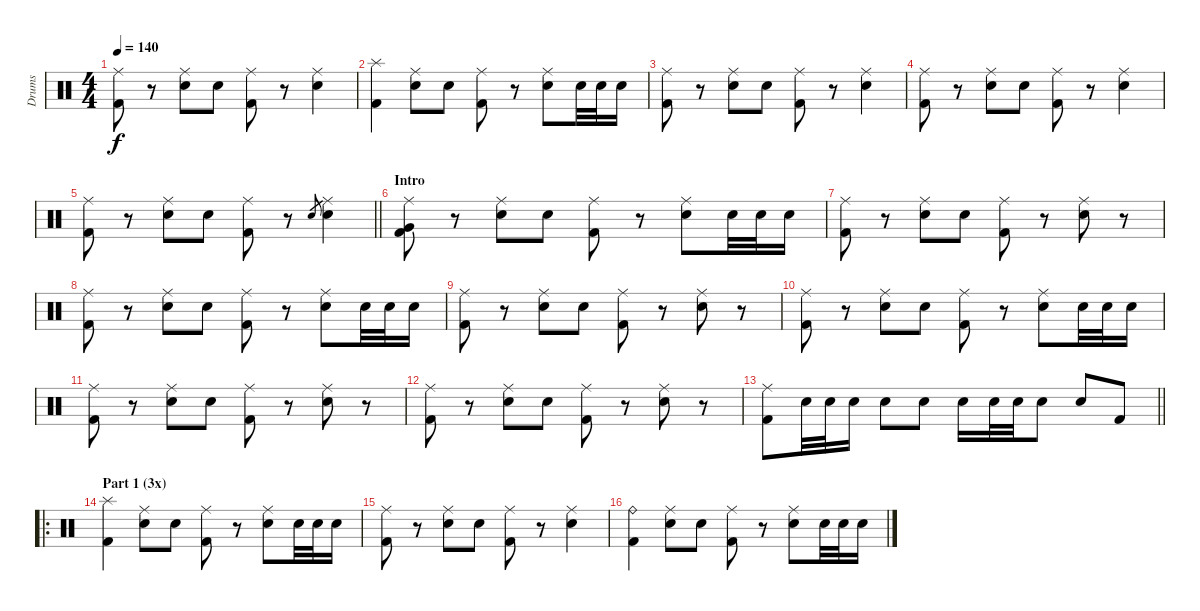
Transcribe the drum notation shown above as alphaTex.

\track ("Drums" "Drums") {instrument percussion}
\staff {score}
\articulation defaults
\ts (4 4)
\tempo 140
\clef neutral
\ks c
("Ride (middle)" "Kick (hit) 2").8{dy f} r.8 ("Ride (middle)" "Snare (hit) 2").8 "Snare (hit) 2".8 ("Ride (middle)" "Kick (hit) 2").8 r.8 ("Ride (middle)" "Snare (hit) 2").4 |
("Splash (hit)" "Kick (hit) 2").4 ("Ride (middle)" "Snare (hit) 2").8 "Snare (hit) 2".8 ("Ride (middle)" "Kick (hit) 2").8 r.8 ("Ride (middle)" "Snare (hit) 2").8 "Snare (hit) 2".32 "Snare (hit) 2".32 "Snare (hit) 2".16 |
("Ride (middle)" "Kick (hit) 2").8 r.8 ("Ride (middle)" "Snare (hit) 2").8 "Snare (hit) 2".8 ("Ride (middle)" "Kick (hit) 2").8 r.8 ("Ride (middle)" "Snare (hit) 2").4 |
("Ride (middle)" "Kick (hit) 2").8 r.8 ("Ride (middle)" "Snare (hit) 2").8 "Snare (hit) 2".8 ("Ride (middle)" "Kick (hit) 2").8 r.8 ("Ride (middle)" "Snare (hit) 2").4 |
\barLineRight lightlight
("Ride (middle)" "Kick (hit) 2").8 r.8 ("Ride (middle)" "Snare (hit) 2").8 "Snare (hit) 2".8 ("Ride (middle)" "Kick (hit) 2").8 r.8 "Snare (hit) 2".8{gr} ("Ride (middle)" "Snare (hit) 2").4 |
\section ("" "Intro")
("Ride (middle)" "Very Low Tom (hit)" "Kick (hit) 2").8 r.8 ("Ride (middle)" "Snare (hit) 2").8 "Snare (hit) 2".8 ("Ride (middle)" "Kick (hit) 2").8 r.8 ("Ride (middle)" "Snare (hit) 2").8 "Snare (hit) 2".32 "Snare (hit) 2".32 "Snare (hit) 2".16 |
("Ride (middle)" "Kick (hit) 2").8 r.8 ("Ride (middle)" "Snare (hit) 2").8 "Snare (hit) 2".8 ("Ride (middle)" "Kick (hit) 2").8 r.8 ("Ride (middle)" "Snare (hit) 2").8 r.8 |
("Ride (middle)" "Kick (hit) 2").8 r.8 ("Ride (middle)" "Snare (hit) 2").8 "Snare (hit) 2".8 ("Ride (middle)" "Kick (hit) 2").8 r.8 ("Ride (middle)" "Snare (hit) 2").8 "Snare (hit) 2".32 "Snare (hit) 2".32 "Snare (hit) 2".16 |
("Ride (middle)" "Kick (hit) 2").8 r.8 ("Ride (middle)" "Snare (hit) 2").8 "Snare (hit) 2".8 ("Ride (middle)" "Kick (hit) 2").8 r.8 ("Ride (middle)" "Snare (hit) 2").8 r.8 |
("Ride (middle)" "Kick (hit) 2").8 r.8 ("Ride (middle)" "Snare (hit) 2").8 "Snare (hit) 2".8 ("Ride (middle)" "Kick (hit) 2").8 r.8 ("Ride (middle)" "Snare (hit) 2").8 "Snare (hit) 2".32 "Snare (hit) 2".32 "Snare (hit) 2".16 |
("Ride (middle)" "Kick (hit) 2").8 r.8 ("Ride (middle)" "Snare (hit) 2").8 "Snare (hit) 2".8 ("Ride (middle)" "Kick (hit) 2").8 r.8 ("Ride (middle)" "Snare (hit) 2").8 r.8 |
("Ride (middle)" "Kick (hit) 2").8 r.8 ("Ride (middle)" "Snare (hit) 2").8 "Snare (hit) 2".8 ("Ride (middle)" "Kick (hit) 2").8 r.8 ("Ride (middle)" "Snare (hit) 2").8 r.8 |
\barLineRight lightlight
("Ride (middle)" "Kick (hit) 2").8 "Snare (hit) 2".32 "Snare (hit) 2".32 "Snare (hit) 2".16 "Snare (hit) 2".8 "Snare (hit) 2".8 "Snare (hit) 2".16 "Snare (hit) 2".32 "Snare (hit) 2".32 "Snare (hit) 2".8 "Snare (hit) 2".8 "Kick (hit) 2".8 |
\ro
\section ("" "Part 1 (3x)")
("Splash (hit)" "Kick (hit) 2").4 ("Ride (middle)" "Snare (hit) 2").8 "Snare (hit) 2".8 ("Ride (middle)" "Kick (hit) 2").8 r.8 ("Ride (middle)" "Snare (hit) 2").8 "Snare (hit) 2".32 "Snare (hit) 2".32 "Snare (hit) 2".16 |
("Ride (middle)" "Kick (hit) 2").8 r.8 ("Ride (middle)" "Snare (hit) 2").8 "Snare (hit) 2".8 ("Ride (middle)" "Kick (hit) 2").8 r.8 ("Ride (middle)" "Snare (hit) 2").4 |
("Ride (bell)" "Kick (hit) 2").4 ("Ride (middle)" "Snare (hit) 2").8 "Snare (hit) 2".8 ("Ride (middle)" "Kick (hit) 2").8 r.8 ("Ride (middle)" "Snare (hit) 2").8 "Snare (hit) 2".32 "Snare (hit) 2".32 "Snare (hit) 2".16
